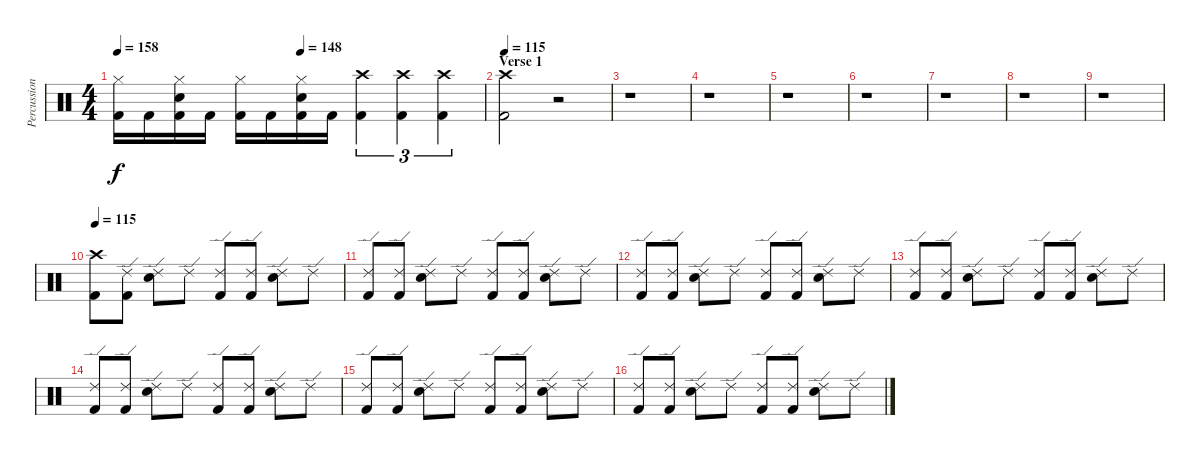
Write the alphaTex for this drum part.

\track ("Percussion" "Percussion") {instrument percussion}
\staff {score}
\articulation defaults
\ts (4 4)
\tempo 158
\tempo (148 0.5)
\clef neutral
\ks c
("Hi-Hat (closed)" "Kick (hit) 2").16{dy f} "Kick (hit) 2".16 ("Hi-Hat (closed)" "Snare (hit) 2" "Kick (hit) 2").16 "Kick (hit) 2".16 ("Hi-Hat (closed)" "Kick (hit) 2").16 "Kick (hit) 2".16 ("Hi-Hat (closed)" "Snare (hit) 2" "Kick (hit) 2").16 "Kick (hit) 2".16 ("Crash high (hit)" "Kick (hit) 2").4{tu (3 2)} ("Crash high (hit)" "Kick (hit) 2").4{tu (3 2)} ("Crash high (hit)" "Kick (hit) 2").4{tu (3 2)} |
\section ("" "Verse 1")
\tempo 115
("Crash high (hit)" "Kick (hit) 2").2 r.2 |
r.1 |
r.1 |
r.1 |
r.1 |
r.1 |
r.1 |
r.1 |
\tempo 115
("Crash high (hit)" "Kick (hit) 2").8 ("Ride (edge) 2" "Kick (hit) 2").8 ("Ride (edge) 2" "Snare (hit) 2").8 "Ride (edge) 2".8 ("Ride (edge) 2" "Kick (hit) 2").8 ("Ride (edge) 2" "Kick (hit) 2").8 ("Ride (edge) 2" "Snare (hit) 2").8 "Ride (edge) 2".8 |
("Ride (edge) 2" "Kick (hit) 2").8 ("Ride (edge) 2" "Kick (hit) 2").8 ("Ride (edge) 2" "Snare (hit) 2").8 "Ride (edge) 2".8 ("Ride (edge) 2" "Kick (hit) 2").8 ("Ride (edge) 2" "Kick (hit) 2").8 ("Ride (edge) 2" "Snare (hit) 2").8 "Ride (edge) 2".8 |
("Ride (edge) 2" "Kick (hit) 2").8 ("Ride (edge) 2" "Kick (hit) 2").8 ("Ride (edge) 2" "Snare (hit) 2").8 "Ride (edge) 2".8 ("Ride (edge) 2" "Kick (hit) 2").8 ("Ride (edge) 2" "Kick (hit) 2").8 ("Ride (edge) 2" "Snare (hit) 2").8 "Ride (edge) 2".8 |
("Ride (edge) 2" "Kick (hit) 2").8 ("Ride (edge) 2" "Kick (hit) 2").8 ("Ride (edge) 2" "Snare (hit) 2").8 "Ride (edge) 2".8 ("Ride (edge) 2" "Kick (hit) 2").8 ("Ride (edge) 2" "Kick (hit) 2").8 ("Ride (edge) 2" "Snare (hit) 2").8 "Ride (edge) 2".8 |
("Ride (edge) 2" "Kick (hit) 2").8 ("Ride (edge) 2" "Kick (hit) 2").8 ("Ride (edge) 2" "Snare (hit) 2").8 "Ride (edge) 2".8 ("Ride (edge) 2" "Kick (hit) 2").8 ("Ride (edge) 2" "Kick (hit) 2").8 ("Ride (edge) 2" "Snare (hit) 2").8 "Ride (edge) 2".8 |
("Ride (edge) 2" "Kick (hit) 2").8 ("Ride (edge) 2" "Kick (hit) 2").8 ("Ride (edge) 2" "Snare (hit) 2").8 "Ride (edge) 2".8 ("Ride (edge) 2" "Kick (hit) 2").8 ("Ride (edge) 2" "Kick (hit) 2").8 ("Ride (edge) 2" "Snare (hit) 2").8 "Ride (edge) 2".8 |
("Ride (edge) 2" "Kick (hit) 2").8 ("Ride (edge) 2" "Kick (hit) 2").8 ("Ride (edge) 2" "Snare (hit) 2").8 "Ride (edge) 2".8 ("Ride (edge) 2" "Kick (hit) 2").8 ("Ride (edge) 2" "Kick (hit) 2").8 ("Ride (edge) 2" "Snare (hit) 2").8 "Ride (edge) 2".8
